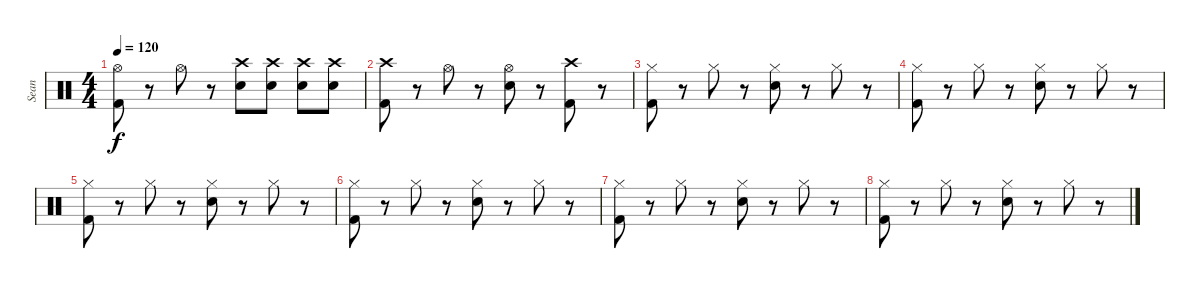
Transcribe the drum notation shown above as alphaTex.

\track ("Sean" "Sean") {instrument percussion}
\staff {score}
\articulation defaults
\ts (4 4)
\tempo 120
\clef neutral
\ks c
("Hi-Hat (open)" "Kick (hit) 2").8{dy f} r.8 "Hi-Hat (open)".8 r.8 ("Crash high (hit)" "Snare (hit) 2").8 ("Crash high (hit)" "Snare (hit) 2").8 ("Crash high (hit)" "Snare (hit) 2").8 ("Crash high (hit)" "Snare (hit) 2").8 |
("Crash high (hit)" "Kick (hit) 2").8 r.8 "Hi-Hat (open)".8 r.8 ("Hi-Hat (open)" "Snare (hit) 2").8 r.8 ("Crash high (hit)" "Kick (hit) 2").8 r.8 |
("Hi-Hat (closed)" "Kick (hit) 2").8 r.8 "Hi-Hat (closed)".8 r.8 ("Hi-Hat (closed)" "Snare (hit) 2").8 r.8 "Hi-Hat (closed)".8 r.8 |
("Hi-Hat (closed)" "Kick (hit) 2").8{volume 0} r.8 "Hi-Hat (closed)".8 r.8 ("Hi-Hat (closed)" "Snare (hit) 2").8 r.8 "Hi-Hat (closed)".8 r.8 |
("Hi-Hat (closed)" "Kick (hit) 2").8 r.8 "Hi-Hat (closed)".8 r.8 ("Hi-Hat (closed)" "Snare (hit) 2").8 r.8 "Hi-Hat (closed)".8 r.8 |
("Hi-Hat (closed)" "Kick (hit) 2").8 r.8 "Hi-Hat (closed)".8 r.8 ("Hi-Hat (closed)" "Snare (hit) 2").8 r.8 "Hi-Hat (closed)".8 r.8 |
("Hi-Hat (closed)" "Kick (hit) 2").8 r.8 "Hi-Hat (closed)".8 r.8 ("Hi-Hat (closed)" "Snare (hit) 2").8 r.8 "Hi-Hat (closed)".8 r.8 |
("Hi-Hat (closed)" "Kick (hit) 2").8 r.8 "Hi-Hat (closed)".8 r.8 ("Hi-Hat (closed)" "Snare (hit) 2").8 r.8 "Hi-Hat (closed)".8 r.8
